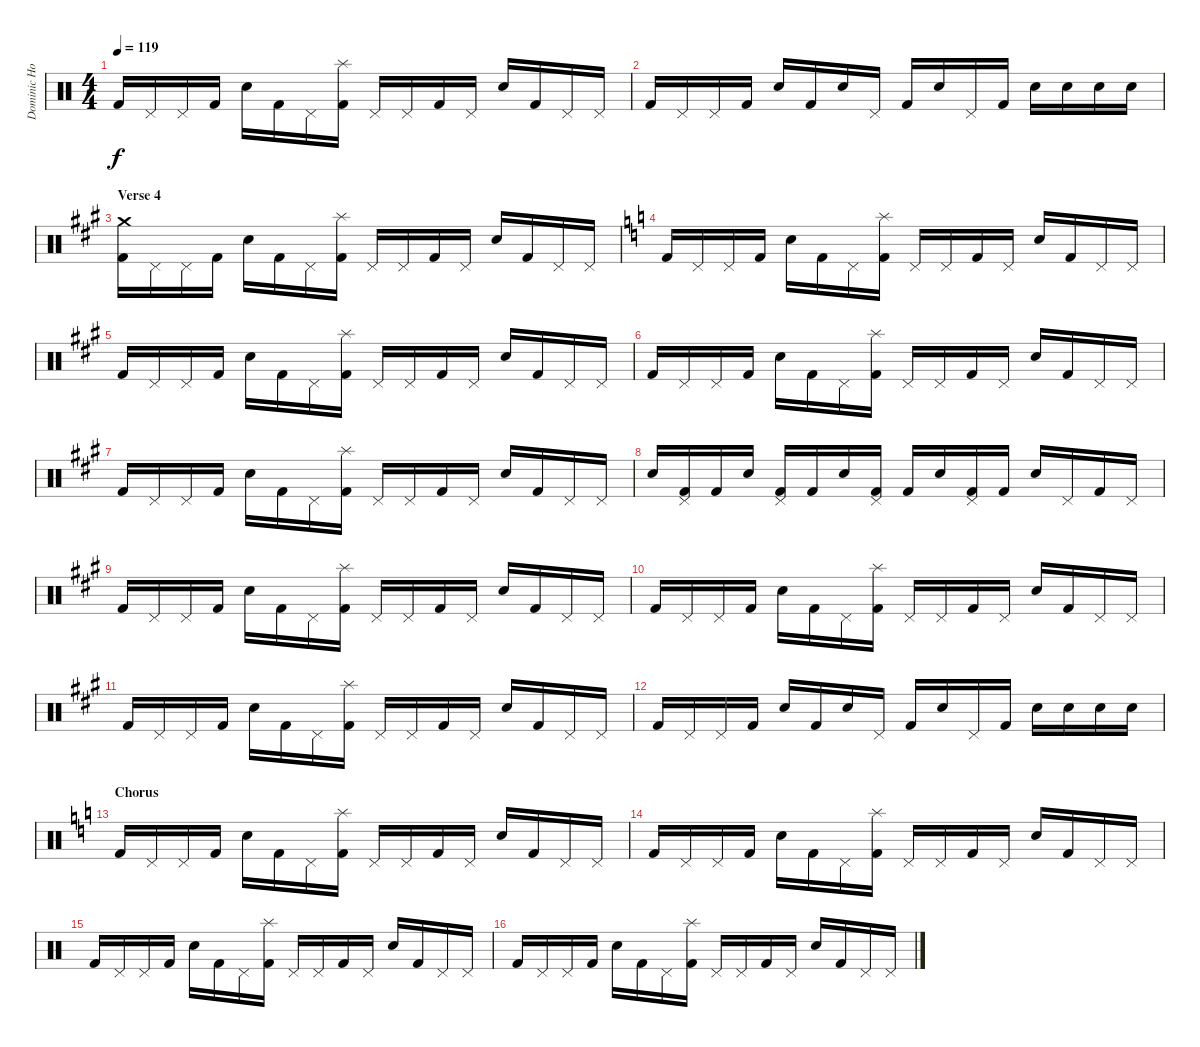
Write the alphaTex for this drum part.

\track ("Dominic Howard" "Dominic Ho") {instrument percussion}
\staff {score}
\articulation defaults
\ts (4 4)
\tempo 119
\clef neutral
\ks c "Kick (hit) 2".16{dy f} "Pedal Hi-Hat (hit)".16 "Pedal Hi-Hat (hit)".16 "Kick (hit) 2".16 "Electric Snare (hit)".16 "Kick (hit) 2".16 "Pedal Hi-Hat (hit)".16
("Splash (hit)" "Kick (hit) 2").16 "Pedal Hi-Hat (hit)".16 "Pedal Hi-Hat (hit)".16 "Kick (hit) 2".16 "Pedal Hi-Hat (hit)".16 "Electric Snare (hit)".16 "Kick (hit) 2".16 "Pedal Hi-Hat (hit)".16 "Pedal Hi-Hat (hit)".16 |
"Kick (hit) 2".16 "Pedal Hi-Hat (hit)".16 "Pedal Hi-Hat (hit)".16 "Kick (hit) 2".16 "Electric Snare (hit)".16 "Kick (hit) 2".16 "Electric Snare (hit)".16 "Pedal Hi-Hat (hit)".16 "Kick (hit) 2".16 "Electric Snare (hit)".16 "Pedal Hi-Hat (hit)".16 "Kick (hit) 2".16 "Electric Snare (hit)".16 "Electric Snare (hit)".16 "Electric Snare (hit)".16 "Electric Snare (hit)".16 |
\section ("" "Verse 4")
\ks a
("Crash medium (hit)" "Kick (hit) 2").16 "Pedal Hi-Hat (hit)".16 "Pedal Hi-Hat (hit)".16 "Kick (hit) 2".16 "Electric Snare (hit)".16 "Kick (hit) 2".16 "Pedal Hi-Hat (hit)".16 ("Splash (hit)" "Kick (hit) 2").16 "Pedal Hi-Hat (hit)".16 "Pedal Hi-Hat (hit)".16 "Kick (hit) 2".16 "Pedal Hi-Hat (hit)".16 "Electric Snare (hit)".16 "Kick (hit) 2".16 "Pedal Hi-Hat (hit)".16 "Pedal Hi-Hat (hit)".16 |
\ks c "Kick (hit) 2".16 "Pedal Hi-Hat (hit)".16 "Pedal Hi-Hat (hit)".16 "Kick (hit) 2".16 "Electric Snare (hit)".16 "Kick (hit) 2".16 "Pedal Hi-Hat (hit)".16
("Splash (hit)" "Kick (hit) 2").16 "Pedal Hi-Hat (hit)".16 "Pedal Hi-Hat (hit)".16 "Kick (hit) 2".16 "Pedal Hi-Hat (hit)".16 "Electric Snare (hit)".16 "Kick (hit) 2".16 "Pedal Hi-Hat (hit)".16 "Pedal Hi-Hat (hit)".16 |
\ks a "Kick (hit) 2".16 "Pedal Hi-Hat (hit)".16 "Pedal Hi-Hat (hit)".16 "Kick (hit) 2".16 "Electric Snare (hit)".16 "Kick (hit) 2".16 "Pedal Hi-Hat (hit)".16
("Splash (hit)" "Kick (hit) 2").16 "Pedal Hi-Hat (hit)".16 "Pedal Hi-Hat (hit)".16 "Kick (hit) 2".16 "Pedal Hi-Hat (hit)".16 "Electric Snare (hit)".16 "Kick (hit) 2".16 "Pedal Hi-Hat (hit)".16 "Pedal Hi-Hat (hit)".16 |
"Kick (hit) 2".16 "Pedal Hi-Hat (hit)".16 "Pedal Hi-Hat (hit)".16 "Kick (hit) 2".16 "Electric Snare (hit)".16 "Kick (hit) 2".16 "Pedal Hi-Hat (hit)".16 ("Splash (hit)" "Kick (hit) 2").16 "Pedal Hi-Hat (hit)".16 "Pedal Hi-Hat (hit)".16 "Kick (hit) 2".16 "Pedal Hi-Hat (hit)".16 "Electric Snare (hit)".16 "Kick (hit) 2".16 "Pedal Hi-Hat (hit)".16 "Pedal Hi-Hat (hit)".16 |
"Kick (hit) 2".16 "Pedal Hi-Hat (hit)".16 "Pedal Hi-Hat (hit)".16 "Kick (hit) 2".16 "Electric Snare (hit)".16 "Kick (hit) 2".16 "Pedal Hi-Hat (hit)".16 ("Splash (hit)" "Kick (hit) 2").16 "Pedal Hi-Hat (hit)".16 "Pedal Hi-Hat (hit)".16 "Kick (hit) 2".16 "Pedal Hi-Hat (hit)".16 "Electric Snare (hit)".16 "Kick (hit) 2".16 "Pedal Hi-Hat (hit)".16 "Pedal Hi-Hat (hit)".16 |
"Electric Snare (hit)".16 ("Pedal Hi-Hat (hit)" "Kick (hit) 2").16 "Kick (hit) 2".16 "Electric Snare (hit)".16 ("Pedal Hi-Hat (hit)" "Kick (hit) 2").16 "Kick (hit) 2".16 "Electric Snare (hit)".16 ("Pedal Hi-Hat (hit)" "Kick (hit) 2").16 "Kick (hit) 2".16 "Electric Snare (hit)".16 ("Pedal Hi-Hat (hit)" "Kick (hit) 2").16 "Kick (hit) 2".16 "Electric Snare (hit)".16 "Pedal Hi-Hat (hit)".16 "Kick (hit) 2".16 "Pedal Hi-Hat (hit)".16 |
"Kick (hit) 2".16 "Pedal Hi-Hat (hit)".16 "Pedal Hi-Hat (hit)".16 "Kick (hit) 2".16 "Electric Snare (hit)".16 "Kick (hit) 2".16 "Pedal Hi-Hat (hit)".16 ("Splash (hit)" "Kick (hit) 2").16 "Pedal Hi-Hat (hit)".16 "Pedal Hi-Hat (hit)".16 "Kick (hit) 2".16 "Pedal Hi-Hat (hit)".16 "Electric Snare (hit)".16 "Kick (hit) 2".16 "Pedal Hi-Hat (hit)".16 "Pedal Hi-Hat (hit)".16 |
"Kick (hit) 2".16 "Pedal Hi-Hat (hit)".16 "Pedal Hi-Hat (hit)".16 "Kick (hit) 2".16 "Electric Snare (hit)".16 "Kick (hit) 2".16 "Pedal Hi-Hat (hit)".16 ("Splash (hit)" "Kick (hit) 2").16 "Pedal Hi-Hat (hit)".16 "Pedal Hi-Hat (hit)".16 "Kick (hit) 2".16 "Pedal Hi-Hat (hit)".16 "Electric Snare (hit)".16 "Kick (hit) 2".16 "Pedal Hi-Hat (hit)".16 "Pedal Hi-Hat (hit)".16 |
"Kick (hit) 2".16 "Pedal Hi-Hat (hit)".16 "Pedal Hi-Hat (hit)".16 "Kick (hit) 2".16 "Electric Snare (hit)".16 "Kick (hit) 2".16 "Pedal Hi-Hat (hit)".16 ("Splash (hit)" "Kick (hit) 2").16 "Pedal Hi-Hat (hit)".16 "Pedal Hi-Hat (hit)".16 "Kick (hit) 2".16 "Pedal Hi-Hat (hit)".16 "Electric Snare (hit)".16 "Kick (hit) 2".16 "Pedal Hi-Hat (hit)".16 "Pedal Hi-Hat (hit)".16 |
"Kick (hit) 2".16 "Pedal Hi-Hat (hit)".16 "Pedal Hi-Hat (hit)".16 "Kick (hit) 2".16 "Electric Snare (hit)".16 "Kick (hit) 2".16 "Electric Snare (hit)".16 "Pedal Hi-Hat (hit)".16 "Kick (hit) 2".16 "Electric Snare (hit)".16 "Pedal Hi-Hat (hit)".16 "Kick (hit) 2".16 "Electric Snare (hit)".16 "Electric Snare (hit)".16 "Electric Snare (hit)".16 "Electric Snare (hit)".16 |
\section ("" "Chorus")
\ks c "Kick (hit) 2".16 "Pedal Hi-Hat (hit)".16 "Pedal Hi-Hat (hit)".16 "Kick (hit) 2".16 "Electric Snare (hit)".16 "Kick (hit) 2".16 "Pedal Hi-Hat (hit)".16
("Splash (hit)" "Kick (hit) 2").16 "Pedal Hi-Hat (hit)".16 "Pedal Hi-Hat (hit)".16 "Kick (hit) 2".16 "Pedal Hi-Hat (hit)".16 "Electric Snare (hit)".16 "Kick (hit) 2".16 "Pedal Hi-Hat (hit)".16 "Pedal Hi-Hat (hit)".16 |
"Kick (hit) 2".16 "Pedal Hi-Hat (hit)".16 "Pedal Hi-Hat (hit)".16 "Kick (hit) 2".16 "Electric Snare (hit)".16 "Kick (hit) 2".16 "Pedal Hi-Hat (hit)".16 ("Splash (hit)" "Kick (hit) 2").16 "Pedal Hi-Hat (hit)".16 "Pedal Hi-Hat (hit)".16 "Kick (hit) 2".16 "Pedal Hi-Hat (hit)".16 "Electric Snare (hit)".16 "Kick (hit) 2".16 "Pedal Hi-Hat (hit)".16 "Pedal Hi-Hat (hit)".16 |
"Kick (hit) 2".16 "Pedal Hi-Hat (hit)".16 "Pedal Hi-Hat (hit)".16 "Kick (hit) 2".16 "Electric Snare (hit)".16 "Kick (hit) 2".16 "Pedal Hi-Hat (hit)".16 ("Splash (hit)" "Kick (hit) 2").16 "Pedal Hi-Hat (hit)".16 "Pedal Hi-Hat (hit)".16 "Kick (hit) 2".16 "Pedal Hi-Hat (hit)".16 "Electric Snare (hit)".16 "Kick (hit) 2".16 "Pedal Hi-Hat (hit)".16 "Pedal Hi-Hat (hit)".16 |
"Kick (hit) 2".16 "Pedal Hi-Hat (hit)".16 "Pedal Hi-Hat (hit)".16 "Kick (hit) 2".16 "Electric Snare (hit)".16 "Kick (hit) 2".16 "Pedal Hi-Hat (hit)".16 ("Splash (hit)" "Kick (hit) 2").16 "Pedal Hi-Hat (hit)".16 "Pedal Hi-Hat (hit)".16 "Kick (hit) 2".16 "Pedal Hi-Hat (hit)".16 "Electric Snare (hit)".16 "Kick (hit) 2".16 "Pedal Hi-Hat (hit)".16 "Pedal Hi-Hat (hit)".16
